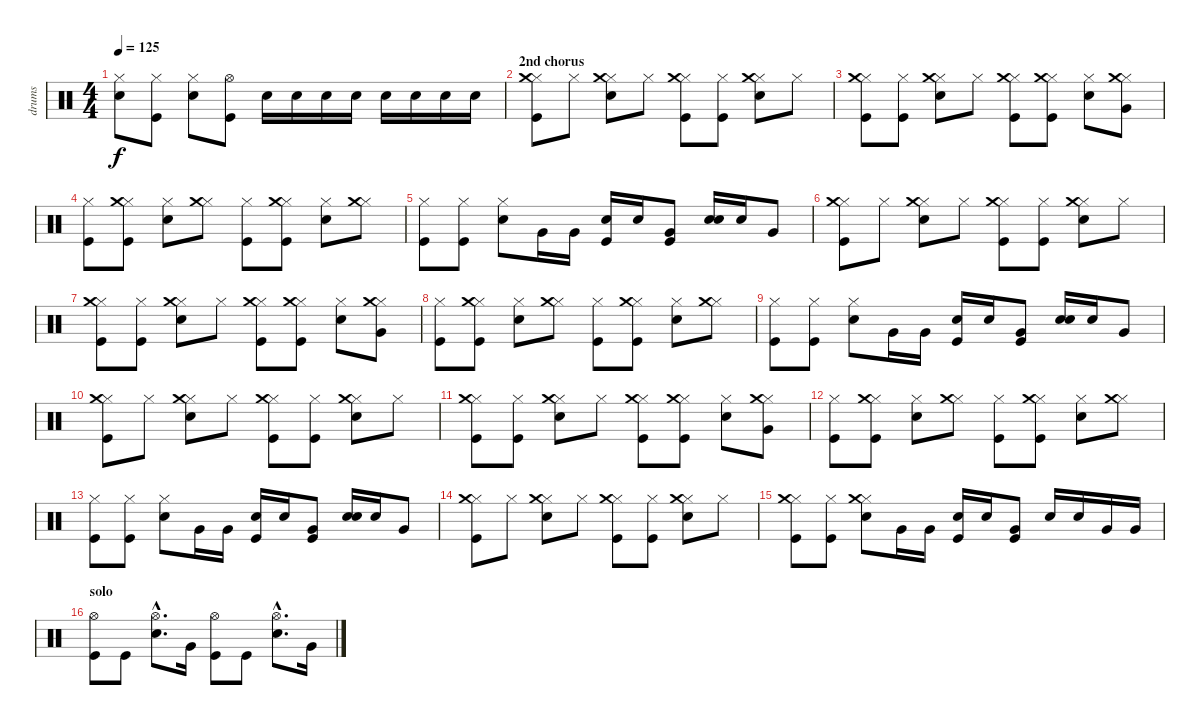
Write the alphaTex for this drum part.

\track ("drums" "drums") {instrument percussion}
\staff {score}
\articulation defaults
\ts (4 4)
\tempo 125
\clef neutral
\ks c
("Hi-Hat (closed)" "Electric Snare (hit)").8{dy f} ("Hi-Hat (closed)" "Kick (hit)").8 ("Hi-Hat (closed)" "Electric Snare (hit)").8 ("Hi-Hat (open)" "Kick (hit)").8 "Electric Snare (hit)".16 "Electric Snare (hit)".16 "Electric Snare (hit)".16 "Electric Snare (hit)".16 "Electric Snare (hit)".16 "Electric Snare (hit)".16 "Electric Snare (hit)".16 "Electric Snare (hit)".16 |
\section ("" "2nd chorus")
("Hi-Hat (closed)" "Crash medium (hit)" "Kick (hit)").8 "Hi-Hat (closed)".8 ("Hi-Hat (closed)" "Crash medium (hit)" "Electric Snare (hit)").8 "Hi-Hat (closed)".8 ("Hi-Hat (closed)" "Crash medium (hit)" "Kick (hit)").8 ("Hi-Hat (closed)" "Kick (hit)").8 ("Hi-Hat (closed)" "Crash medium (hit)" "Electric Snare (hit)").8 "Hi-Hat (closed)".8 |
("Hi-Hat (closed)" "Crash medium (hit)" "Kick (hit)").8 ("Hi-Hat (closed)" "Kick (hit)").8 ("Hi-Hat (closed)" "Crash medium (hit)" "Electric Snare (hit)").8 "Hi-Hat (closed)".8 ("Hi-Hat (closed)" "Crash medium (hit)" "Kick (hit)").8 ("Hi-Hat (closed)" "Crash medium (hit)" "Kick (hit)").8 ("Hi-Hat (closed)" "Electric Snare (hit)").8 ("Hi-Hat (closed)" "Crash medium (hit)" "Very Low Tom (hit)").8 |
("Hi-Hat (closed)" "Kick (hit)").8 ("Hi-Hat (closed)" "Crash medium (hit)" "Kick (hit)").8 ("Hi-Hat (closed)" "Electric Snare (hit)").8 ("Hi-Hat (closed)" "Crash medium (hit)").8 ("Hi-Hat (closed)" "Kick (hit)").8 ("Hi-Hat (closed)" "Crash medium (hit)" "Kick (hit)").8 ("Hi-Hat (closed)" "Electric Snare (hit)").8 ("Hi-Hat (closed)" "Crash medium (hit)").8 |
("Hi-Hat (closed)" "Kick (hit)").8 ("Hi-Hat (closed)" "Kick (hit)").8 ("Hi-Hat (closed)" "Electric Snare (hit)").8 "Very Low Tom (hit)".16 "Very Low Tom (hit)".16 ("Electric Snare (hit)" "Kick (hit)").16 "Electric Snare (hit)".16 ("Very Low Tom (hit)" "Kick (hit)").8 ("Electric Snare (hit)" "Electric Snare (hit)").16 "Electric Snare (hit)".16 "Very Low Tom (hit)".8 |
("Hi-Hat (closed)" "Crash medium (hit)" "Kick (hit)").8 "Hi-Hat (closed)".8 ("Hi-Hat (closed)" "Crash medium (hit)" "Electric Snare (hit)").8 "Hi-Hat (closed)".8 ("Hi-Hat (closed)" "Crash medium (hit)" "Kick (hit)").8 ("Hi-Hat (closed)" "Kick (hit)").8 ("Hi-Hat (closed)" "Crash medium (hit)" "Electric Snare (hit)").8 "Hi-Hat (closed)".8 |
("Hi-Hat (closed)" "Crash medium (hit)" "Kick (hit)").8 ("Hi-Hat (closed)" "Kick (hit)").8 ("Hi-Hat (closed)" "Crash medium (hit)" "Electric Snare (hit)").8 "Hi-Hat (closed)".8 ("Hi-Hat (closed)" "Crash medium (hit)" "Kick (hit)").8 ("Hi-Hat (closed)" "Crash medium (hit)" "Kick (hit)").8 ("Hi-Hat (closed)" "Electric Snare (hit)").8 ("Hi-Hat (closed)" "Crash medium (hit)" "Very Low Tom (hit)").8 |
("Hi-Hat (closed)" "Kick (hit)").8 ("Hi-Hat (closed)" "Crash medium (hit)" "Kick (hit)").8 ("Hi-Hat (closed)" "Electric Snare (hit)").8 ("Hi-Hat (closed)" "Crash medium (hit)").8 ("Hi-Hat (closed)" "Kick (hit)").8 ("Hi-Hat (closed)" "Crash medium (hit)" "Kick (hit)").8 ("Hi-Hat (closed)" "Electric Snare (hit)").8 ("Hi-Hat (closed)" "Crash medium (hit)").8 |
("Hi-Hat (closed)" "Kick (hit)").8 ("Hi-Hat (closed)" "Kick (hit)").8 ("Hi-Hat (closed)" "Electric Snare (hit)").8 "Very Low Tom (hit)".16 "Very Low Tom (hit)".16 ("Electric Snare (hit)" "Kick (hit)").16 "Electric Snare (hit)".16 ("Very Low Tom (hit)" "Kick (hit)").8 ("Electric Snare (hit)" "Electric Snare (hit)").16 "Electric Snare (hit)".16 "Very Low Tom (hit)".8 |
("Hi-Hat (closed)" "Crash medium (hit)" "Kick (hit)").8 "Hi-Hat (closed)".8 ("Hi-Hat (closed)" "Crash medium (hit)" "Electric Snare (hit)").8 "Hi-Hat (closed)".8 ("Hi-Hat (closed)" "Crash medium (hit)" "Kick (hit)").8 ("Hi-Hat (closed)" "Kick (hit)").8 ("Hi-Hat (closed)" "Crash medium (hit)" "Electric Snare (hit)").8 "Hi-Hat (closed)".8 |
("Hi-Hat (closed)" "Crash medium (hit)" "Kick (hit)").8 ("Hi-Hat (closed)" "Kick (hit)").8 ("Hi-Hat (closed)" "Crash medium (hit)" "Electric Snare (hit)").8 "Hi-Hat (closed)".8 ("Hi-Hat (closed)" "Crash medium (hit)" "Kick (hit)").8 ("Hi-Hat (closed)" "Crash medium (hit)" "Kick (hit)").8 ("Hi-Hat (closed)" "Electric Snare (hit)").8 ("Hi-Hat (closed)" "Crash medium (hit)" "Very Low Tom (hit)").8 |
("Hi-Hat (closed)" "Kick (hit)").8 ("Hi-Hat (closed)" "Crash medium (hit)" "Kick (hit)").8 ("Hi-Hat (closed)" "Electric Snare (hit)").8 ("Hi-Hat (closed)" "Crash medium (hit)").8 ("Hi-Hat (closed)" "Kick (hit)").8 ("Hi-Hat (closed)" "Crash medium (hit)" "Kick (hit)").8 ("Hi-Hat (closed)" "Electric Snare (hit)").8 ("Hi-Hat (closed)" "Crash medium (hit)").8 |
("Hi-Hat (closed)" "Kick (hit)").8 ("Hi-Hat (closed)" "Kick (hit)").8 ("Hi-Hat (closed)" "Electric Snare (hit)").8 "Very Low Tom (hit)".16 "Very Low Tom (hit)".16 ("Electric Snare (hit)" "Kick (hit)").16 "Electric Snare (hit)".16 ("Very Low Tom (hit)" "Kick (hit)").8 ("Electric Snare (hit)" "Electric Snare (hit)").16 "Electric Snare (hit)".16 "Very Low Tom (hit)".8 |
("Hi-Hat (closed)" "Crash medium (hit)" "Kick (hit)").8 "Hi-Hat (closed)".8 ("Hi-Hat (closed)" "Crash medium (hit)" "Electric Snare (hit)").8 "Hi-Hat (closed)".8 ("Hi-Hat (closed)" "Crash medium (hit)" "Kick (hit)").8 ("Hi-Hat (closed)" "Kick (hit)").8 ("Hi-Hat (closed)" "Crash medium (hit)" "Electric Snare (hit)").8 "Hi-Hat (closed)".8 |
("Hi-Hat (closed)" "Crash medium (hit)" "Kick (hit)").8 ("Hi-Hat (closed)" "Kick (hit)").8 ("Hi-Hat (closed)" "Crash medium (hit)" "Electric Snare (hit)").8 "Very Low Tom (hit)".16 "Very Low Tom (hit)".16 ("Electric Snare (hit)" "Kick (hit)").16 "Electric Snare (hit)".16 ("Very Low Tom (hit)" "Kick (hit)").8 "Electric Snare (hit)".16 "Electric Snare (hit)".16 "Very Low Tom (hit)".16 "Very Low Tom (hit)".16 |
\section ("" "solo")
("Hi-Hat (open)" "Kick (hit)").8 "Kick (hit)".8 ("Hi-Hat (open)"{hac} "Electric Snare (hit)"{hac}).8{d} "Very Low Tom (hit)".16 ("Hi-Hat (open)" "Kick (hit)").8 "Kick (hit)".8 ("Hi-Hat (open)"{hac} "Electric Snare (hit)"{hac}).8{d} "Very Low Tom (hit)".16
